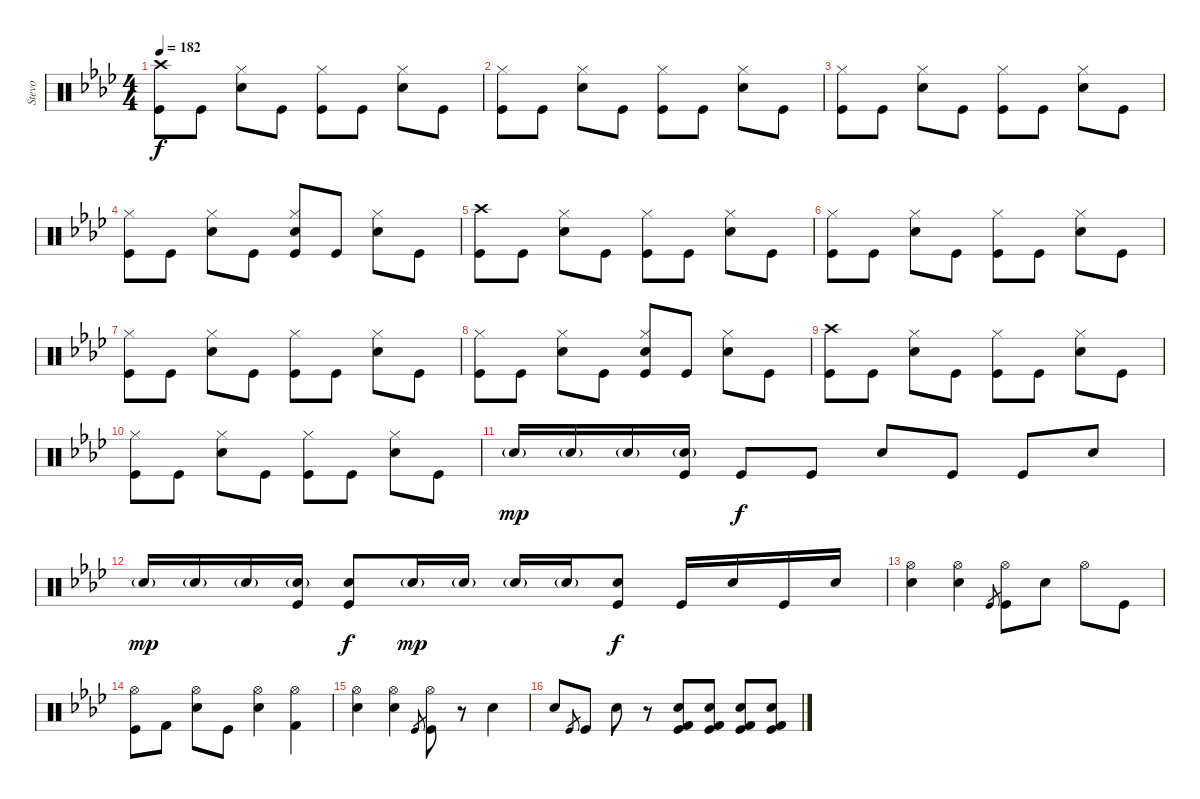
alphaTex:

\track ("Stevo" "Stevo") {instrument percussion}
\staff {score}
\articulation defaults
\ts (4 4)
\tempo 182
\clef neutral
\ks ab
("Crash high (hit)" "Kick (hit)").8{dy f} "Kick (hit)".8 ("Hi-Hat (closed)" "Snare (hit) 2").8 "Kick (hit)".8 ("Hi-Hat (closed)" "Kick (hit)").8 "Kick (hit)".8 ("Hi-Hat (closed)" "Snare (hit) 2").8 "Kick (hit)".8 |
("Hi-Hat (closed)" "Kick (hit)").8 "Kick (hit)".8 ("Hi-Hat (closed)" "Snare (hit) 2").8 "Kick (hit)".8 ("Hi-Hat (closed)" "Kick (hit)").8 "Kick (hit)".8 ("Hi-Hat (closed)" "Snare (hit) 2").8 "Kick (hit)".8 |
("Hi-Hat (closed)" "Kick (hit)").8 "Kick (hit)".8 ("Hi-Hat (closed)" "Snare (hit) 2").8 "Kick (hit)".8 ("Hi-Hat (closed)" "Kick (hit)").8 "Kick (hit)".8 ("Hi-Hat (closed)" "Snare (hit) 2").8 "Kick (hit)".8 |
("Hi-Hat (closed)" "Kick (hit)").8 "Kick (hit)".8 ("Hi-Hat (closed)" "Snare (hit) 2").8 "Kick (hit)".8 ("Hi-Hat (closed)" "Snare (hit) 2" "Kick (hit)").8 "Kick (hit)".8 ("Hi-Hat (closed)" "Snare (hit) 2").8 "Kick (hit)".8 |
("Crash high (hit)" "Kick (hit)").8 "Kick (hit)".8 ("Hi-Hat (closed)" "Snare (hit) 2").8 "Kick (hit)".8 ("Hi-Hat (closed)" "Kick (hit)").8 "Kick (hit)".8 ("Hi-Hat (closed)" "Snare (hit) 2").8 "Kick (hit)".8 |
("Hi-Hat (closed)" "Kick (hit)").8 "Kick (hit)".8 ("Hi-Hat (closed)" "Snare (hit) 2").8 "Kick (hit)".8 ("Hi-Hat (closed)" "Kick (hit)").8 "Kick (hit)".8 ("Hi-Hat (closed)" "Snare (hit) 2").8 "Kick (hit)".8 |
("Hi-Hat (closed)" "Kick (hit)").8 "Kick (hit)".8 ("Hi-Hat (closed)" "Snare (hit) 2").8 "Kick (hit)".8 ("Hi-Hat (closed)" "Kick (hit)").8 "Kick (hit)".8 ("Hi-Hat (closed)" "Snare (hit) 2").8 "Kick (hit)".8 |
("Hi-Hat (closed)" "Kick (hit)").8 "Kick (hit)".8 ("Hi-Hat (closed)" "Snare (hit) 2").8 "Kick (hit)".8 ("Hi-Hat (closed)" "Snare (hit) 2" "Kick (hit)").8 "Kick (hit)".8 ("Hi-Hat (closed)" "Snare (hit) 2").8 "Kick (hit)".8 |
("Crash high (hit)" "Kick (hit)").8 "Kick (hit)".8 ("Hi-Hat (closed)" "Snare (hit) 2").8 "Kick (hit)".8 ("Hi-Hat (closed)" "Kick (hit)").8 "Kick (hit)".8 ("Hi-Hat (closed)" "Snare (hit) 2").8 "Kick (hit)".8 |
("Hi-Hat (closed)" "Kick (hit)").8 "Kick (hit)".8 ("Hi-Hat (closed)" "Snare (hit) 2").8 "Kick (hit)".8 ("Hi-Hat (closed)" "Kick (hit)").8 "Kick (hit)".8 ("Hi-Hat (closed)" "Snare (hit) 2").8 "Kick (hit)".8 |
"Snare (hit) 2"{g}.16{dy mp} "Snare (hit) 2"{g}.16 "Snare (hit) 2"{g}.16 ("Snare (hit) 2"{g} "Kick (hit)").16 "Kick (hit)".8{dy f} "Kick (hit)".8 "Snare (hit) 2".8 "Kick (hit)".8 "Kick (hit)".8 "Snare (hit) 2".8 |
"Snare (hit) 2"{g}.16{dy mp} "Snare (hit) 2"{g}.16 "Snare (hit) 2"{g}.16 ("Snare (hit) 2"{g} "Kick (hit)").16 ("Snare (hit) 2" "Kick (hit)").8{dy f} "Snare (hit) 2"{g}.16{dy mp} "Snare (hit) 2"{g}.16 "Snare (hit) 2"{g}.16 "Snare (hit) 2"{g}.16 ("Snare (hit) 2" "Kick (hit)").8{dy f} "Kick (hit)".16 "Snare (hit) 2".16 "Kick (hit)".16 "Snare (hit) 2".16 |
("Hi-Hat (open)" "Snare (hit) 2").4 ("Hi-Hat (open)" "Snare (hit) 2").4 "Kick (hit)".8{gr} ("Hi-Hat (open)" "Kick (hit)").8 "Snare (hit) 2".8 "Hi-Hat (open)".8 "Kick (hit)".8 |
("Hi-Hat (open)" "Kick (hit)").8 "Kick (hit) 2".8 ("Hi-Hat (open)" "Snare (hit) 2").8 "Kick (hit)".8 ("Hi-Hat (open)" "Snare (hit) 2").4 ("Hi-Hat (open)" "Kick (hit) 2").4 |
("Hi-Hat (open)" "Snare (hit) 2").4 ("Hi-Hat (open)" "Snare (hit) 2").4 "Kick (hit)".8{gr} ("Hi-Hat (open)" "Kick (hit)").8 r.8 "Snare (hit) 2".4 |
"Snare (hit) 2".8 "Kick (hit)".8{gr} "Kick (hit)".8 "Snare (hit) 2".8 r.8 ("Kick (hit) 2" "Snare (hit) 2" "Kick (hit)").8 ("Kick (hit) 2" "Snare (hit) 2" "Kick (hit)").8 ("Kick (hit) 2" "Snare (hit) 2" "Kick (hit)").8 ("Kick (hit) 2" "Snare (hit) 2" "Kick (hit)").8
